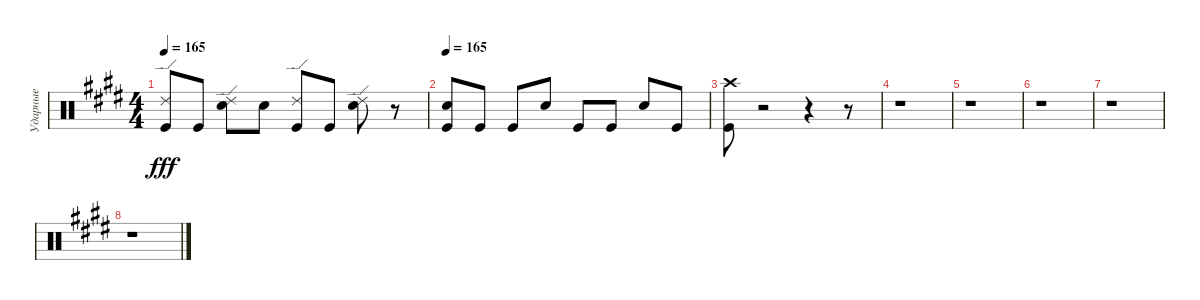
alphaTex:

\track ("Ударные" "Ударные") {instrument percussion}
\staff {score}
\articulation defaults
\ts (4 4)
\tempo 165
\clef neutral
\ks e
("Ride (edge) 2" "Kick (hit)").8{dy fff} "Kick (hit)".8 ("Ride (edge) 2" "Snare (hit) 2").8 "Snare (hit) 2".8 ("Ride (edge) 2" "Kick (hit)").8 "Kick (hit)".8 ("Ride (edge) 2" "Snare (hit) 2").8 r.8 |
\tempo 165
("Snare (hit) 2" "Kick (hit)").8 "Kick (hit)".8 "Kick (hit)".8 "Snare (hit) 2".8 "Kick (hit)".8 "Kick (hit)".8 "Snare (hit) 2".8 "Kick (hit)".8 |
("Crash high (hit)" "Kick (hit)").8 r.2 r.4 r.8 |
r.1 |
r.1 |
r.1 |
r.1 |
r.1
